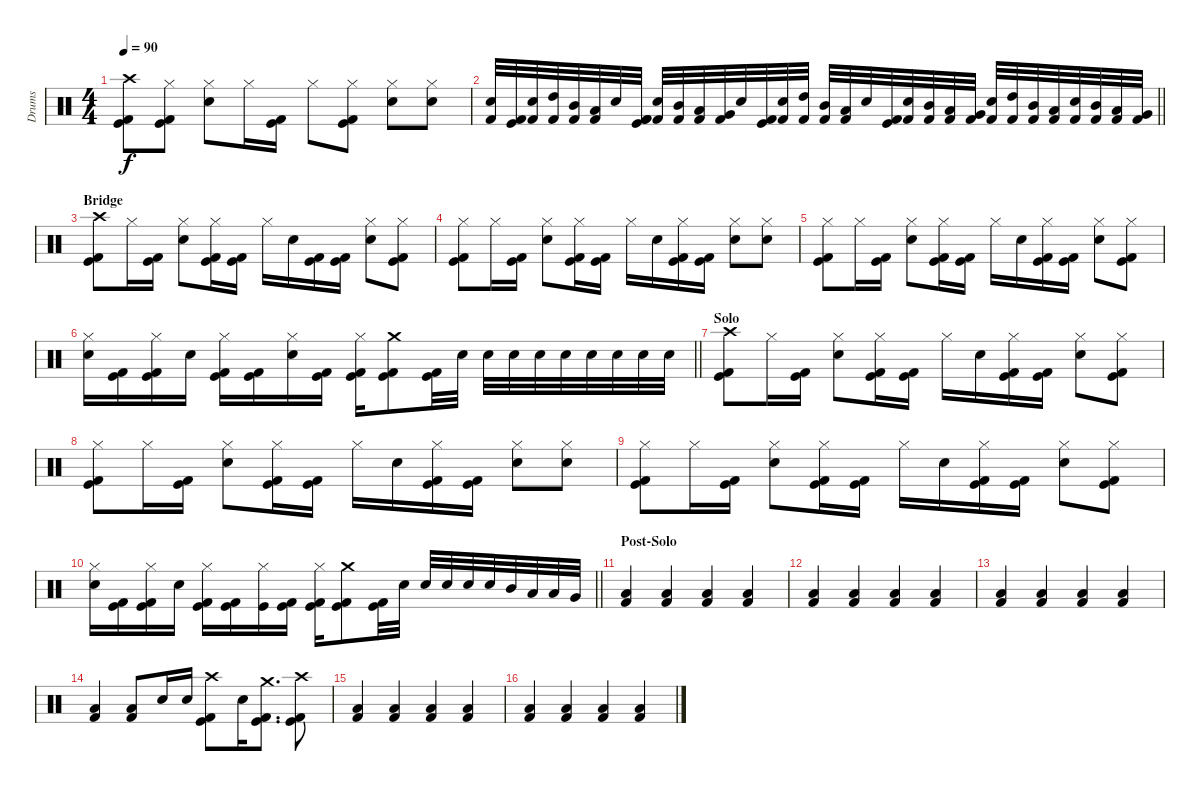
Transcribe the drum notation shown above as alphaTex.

\track ("Drums" "Drums") {instrument percussion}
\staff {score}
\articulation defaults
\ts (4 4)
\tempo 90
\clef neutral
\ks c
("Crash high (hit)" "Kick (hit)" "Kick (hit) 2").8{dy f} ("Hi-Hat (closed)" "Kick (hit)" "Kick (hit) 2").8 ("Hi-Hat (closed)" "Snare (hit) 2").8 "Hi-Hat (closed)".16 ("Kick (hit)" "Kick (hit) 2").16 "Hi-Hat (closed)".8 ("Hi-Hat (closed)" "Kick (hit)" "Kick (hit) 2").8 ("Hi-Hat (closed)" "Snare (hit) 2").8 ("Hi-Hat (closed)" "Snare (hit) 2").8 |
\barLineRight lightlight
("Snare (hit) 2" "Kick (hit) 2").32 ("Kick (hit)" "Kick (hit) 2").32 ("Snare (hit) 2" "Kick (hit) 2").32 ("High Tom (hit)" "Kick (hit) 2").32 ("Mid Tom (hit)" "Kick (hit) 2").32 ("Low Tom (hit)" "Kick (hit) 2").32 "Snare (hit) 2".32 ("Kick (hit)" "Kick (hit) 2" "Kick (hit) 2").32 ("Snare (hit) 2" "Kick (hit) 2").32 ("Mid Tom (hit)" "Kick (hit) 2").32 ("Low Tom (hit)" "Kick (hit) 2").32 ("Very Low Tom (hit)" "Kick (hit) 2").32 "Snare (hit) 2".32 ("Kick (hit)" "Kick (hit) 2").32 ("Snare (hit) 2" "Kick (hit) 2").32 ("High Tom (hit)" "Kick (hit) 2").32 ("Mid Tom (hit)" "Kick (hit) 2").32 ("Low Tom (hit)" "Kick (hit) 2").32 "Snare (hit) 2".32 ("Kick (hit)" "Kick (hit) 2").32 ("Snare (hit) 2" "Kick (hit) 2").32 ("Mid Tom (hit)" "Kick (hit) 2").32 ("Low Tom (hit)" "Kick (hit) 2").32 ("Very Low Tom (hit)" "Kick (hit) 2").32 ("Snare (hit) 2" "Kick (hit) 2").32 ("High Tom (hit)" "Kick (hit) 2").32 ("Mid Tom (hit)" "Kick (hit) 2").32 ("Low Tom (hit)" "Kick (hit) 2").32 ("Snare (hit) 2" "Kick (hit) 2").32 ("Mid Tom (hit)" "Kick (hit) 2").32 ("Low Tom (hit)" "Kick (hit) 2").32 ("Very Low Tom (hit)" "Kick (hit) 2").32 |
\section ("" "Bridge")
("Crash high (hit)" "Kick (hit)" "Kick (hit) 2").8 "Hi-Hat (closed)".16 ("Kick (hit)" "Kick (hit) 2").16 ("Hi-Hat (closed)" "Snare (hit) 2").8 ("Hi-Hat (closed)" "Kick (hit)" "Kick (hit) 2").16 ("Kick (hit)" "Kick (hit) 2").16 "Hi-Hat (closed)".16 "Snare (hit) 2".16 ("Kick (hit)" "Kick (hit) 2").16 ("Kick (hit)" "Kick (hit) 2").16 ("Hi-Hat (closed)" "Snare (hit) 2").8 ("Hi-Hat (closed)" "Kick (hit)" "Kick (hit) 2").8 |
("Hi-Hat (closed)" "Kick (hit)" "Kick (hit) 2").8 "Hi-Hat (closed)".16 ("Kick (hit)" "Kick (hit) 2").16 ("Hi-Hat (closed)" "Snare (hit) 2").8 ("Hi-Hat (closed)" "Kick (hit)" "Kick (hit) 2").16 ("Kick (hit)" "Kick (hit) 2").16 "Hi-Hat (closed)".16 "Snare (hit) 2".16 ("Hi-Hat (closed)" "Kick (hit)" "Kick (hit) 2").16 ("Kick (hit)" "Kick (hit) 2").16 ("Hi-Hat (closed)" "Snare (hit) 2").8 ("Hi-Hat (closed)" "Snare (hit) 2").8 |
("Hi-Hat (closed)" "Kick (hit)" "Kick (hit) 2").8 "Hi-Hat (closed)".16 ("Kick (hit)" "Kick (hit) 2").16 ("Hi-Hat (closed)" "Snare (hit) 2").8 ("Hi-Hat (closed)" "Kick (hit)" "Kick (hit) 2").16 ("Kick (hit)" "Kick (hit) 2").16 "Hi-Hat (closed)".16 "Snare (hit) 2".16 ("Hi-Hat (closed)" "Kick (hit)" "Kick (hit) 2").16 ("Kick (hit)" "Kick (hit) 2").16 ("Hi-Hat (closed)" "Snare (hit) 2").8 ("Hi-Hat (closed)" "Kick (hit)" "Kick (hit) 2").8 |
\barLineRight lightlight
("Hi-Hat (closed)" "Snare (hit) 2").16 ("Kick (hit)" "Kick (hit) 2").16 ("Hi-Hat (closed)" "Kick (hit)" "Kick (hit) 2").16 "Snare (hit) 2".16 ("Hi-Hat (closed)" "Kick (hit)" "Kick (hit) 2").16 ("Kick (hit)" "Kick (hit) 2").16 ("Hi-Hat (closed)" "Snare (hit) 2").16 ("Kick (hit)" "Kick (hit) 2").16 ("Hi-Hat (closed)" "Kick (hit)" "Kick (hit) 2").16 ("Crash medium (hit)" "Kick (hit)" "Kick (hit) 2").8 ("Kick (hit)" "Kick (hit) 2").32 "Snare (hit) 2".32 "Snare (hit) 2".32 "Snare (hit) 2".32 "Snare (hit) 2".32 "Snare (hit) 2".32 "Snare (hit) 2".32 "Snare (hit) 2".32 "Snare (hit) 2".32 "Snare (hit) 2".32 |
\section ("" "Solo")
("Crash high (hit)" "Kick (hit)" "Kick (hit) 2").8 "Hi-Hat (closed)".16 ("Kick (hit)" "Kick (hit) 2").16 ("Hi-Hat (closed)" "Snare (hit) 2").8 ("Hi-Hat (closed)" "Kick (hit)" "Kick (hit) 2").16 ("Kick (hit)" "Kick (hit) 2").16 "Hi-Hat (closed)".16 "Snare (hit) 2".16 ("Hi-Hat (closed)" "Kick (hit)" "Kick (hit) 2").16 ("Kick (hit)" "Kick (hit) 2").16 ("Hi-Hat (closed)" "Snare (hit) 2").8 ("Hi-Hat (closed)" "Kick (hit)" "Kick (hit) 2").8 |
("Hi-Hat (closed)" "Kick (hit)" "Kick (hit) 2").8 "Hi-Hat (closed)".16 ("Kick (hit)" "Kick (hit) 2").16 ("Hi-Hat (closed)" "Snare (hit) 2").8 ("Hi-Hat (closed)" "Kick (hit)" "Kick (hit) 2").16 ("Kick (hit)" "Kick (hit) 2").16 "Hi-Hat (closed)".16 "Snare (hit) 2".16 ("Hi-Hat (closed)" "Kick (hit)" "Kick (hit) 2").16 ("Kick (hit)" "Kick (hit) 2").16 ("Hi-Hat (closed)" "Snare (hit) 2").8 ("Hi-Hat (closed)" "Snare (hit) 2").8 |
("Hi-Hat (closed)" "Kick (hit)" "Kick (hit) 2").8 "Hi-Hat (closed)".16 ("Kick (hit)" "Kick (hit) 2").16 ("Hi-Hat (closed)" "Snare (hit) 2").8 ("Hi-Hat (closed)" "Kick (hit)" "Kick (hit) 2").16 ("Kick (hit)" "Kick (hit) 2").16 "Hi-Hat (closed)".16 "Snare (hit) 2".16 ("Hi-Hat (closed)" "Kick (hit)" "Kick (hit) 2").16 ("Kick (hit)" "Kick (hit) 2").16 ("Hi-Hat (closed)" "Snare (hit) 2").8 ("Hi-Hat (closed)" "Kick (hit)" "Kick (hit) 2").8 |
\barLineRight lightlight
("Hi-Hat (closed)" "Snare (hit) 2").16 ("Kick (hit)" "Kick (hit) 2").16 ("Hi-Hat (closed)" "Kick (hit)" "Kick (hit) 2").16 "Snare (hit) 2".16 ("Hi-Hat (closed)" "Kick (hit)" "Kick (hit) 2").16 ("Kick (hit)" "Kick (hit) 2").16 ("Hi-Hat (closed)" "Kick (hit)").16 ("Kick (hit)" "Kick (hit) 2").16 ("Hi-Hat (closed)" "Kick (hit)" "Kick (hit) 2").16 ("Crash medium (hit)" "Kick (hit)" "Kick (hit) 2").8 ("Kick (hit)" "Kick (hit) 2").32 "Snare (hit) 2".32 "Snare (hit) 2".32 "Snare (hit) 2".32 "Snare (hit) 2".32 "Snare (hit) 2".32 "Mid Tom (hit)".32 "Low Tom (hit)".32 "Low Tom (hit)".32 "Very Low Tom (hit)".32 |
\section ("" "Post-Solo")
("Low Floor Tom (hit)" "Kick (hit) 2").4 ("Low Floor Tom (hit)" "Kick (hit) 2").4 ("Low Floor Tom (hit)" "Kick (hit) 2").4 ("Low Floor Tom (hit)" "Kick (hit) 2").4 |
("Low Floor Tom (hit)" "Kick (hit) 2").4 ("Low Floor Tom (hit)" "Kick (hit) 2").4 ("Low Floor Tom (hit)" "Kick (hit) 2").4 ("Low Floor Tom (hit)" "Kick (hit) 2").4 |
("Low Floor Tom (hit)" "Kick (hit) 2").4 ("Low Floor Tom (hit)" "Kick (hit) 2").4 ("Low Floor Tom (hit)" "Kick (hit) 2").4 ("Low Floor Tom (hit)" "Kick (hit) 2").4 |
("Low Floor Tom (hit)" "Kick (hit) 2").4 ("Low Floor Tom (hit)" "Kick (hit) 2").8 "Snare (hit) 2".16 "Snare (hit) 2".16 ("Crash high (hit)" "Kick (hit)" "Kick (hit) 2").8 "Snare (hit) 2".16 ("Crash medium (hit)" "Kick (hit)" "Kick (hit) 2").8{d} ("Crash high (hit)" "Kick (hit)" "Kick (hit) 2").8 |
("Low Floor Tom (hit)" "Kick (hit) 2").4 ("Low Floor Tom (hit)" "Kick (hit) 2").4 ("Low Floor Tom (hit)" "Kick (hit) 2").4 ("Low Floor Tom (hit)" "Kick (hit) 2").4 |
("Low Floor Tom (hit)" "Kick (hit) 2").4 ("Low Floor Tom (hit)" "Kick (hit) 2").4 ("Low Floor Tom (hit)" "Kick (hit) 2").4 ("Low Floor Tom (hit)" "Kick (hit) 2").4
